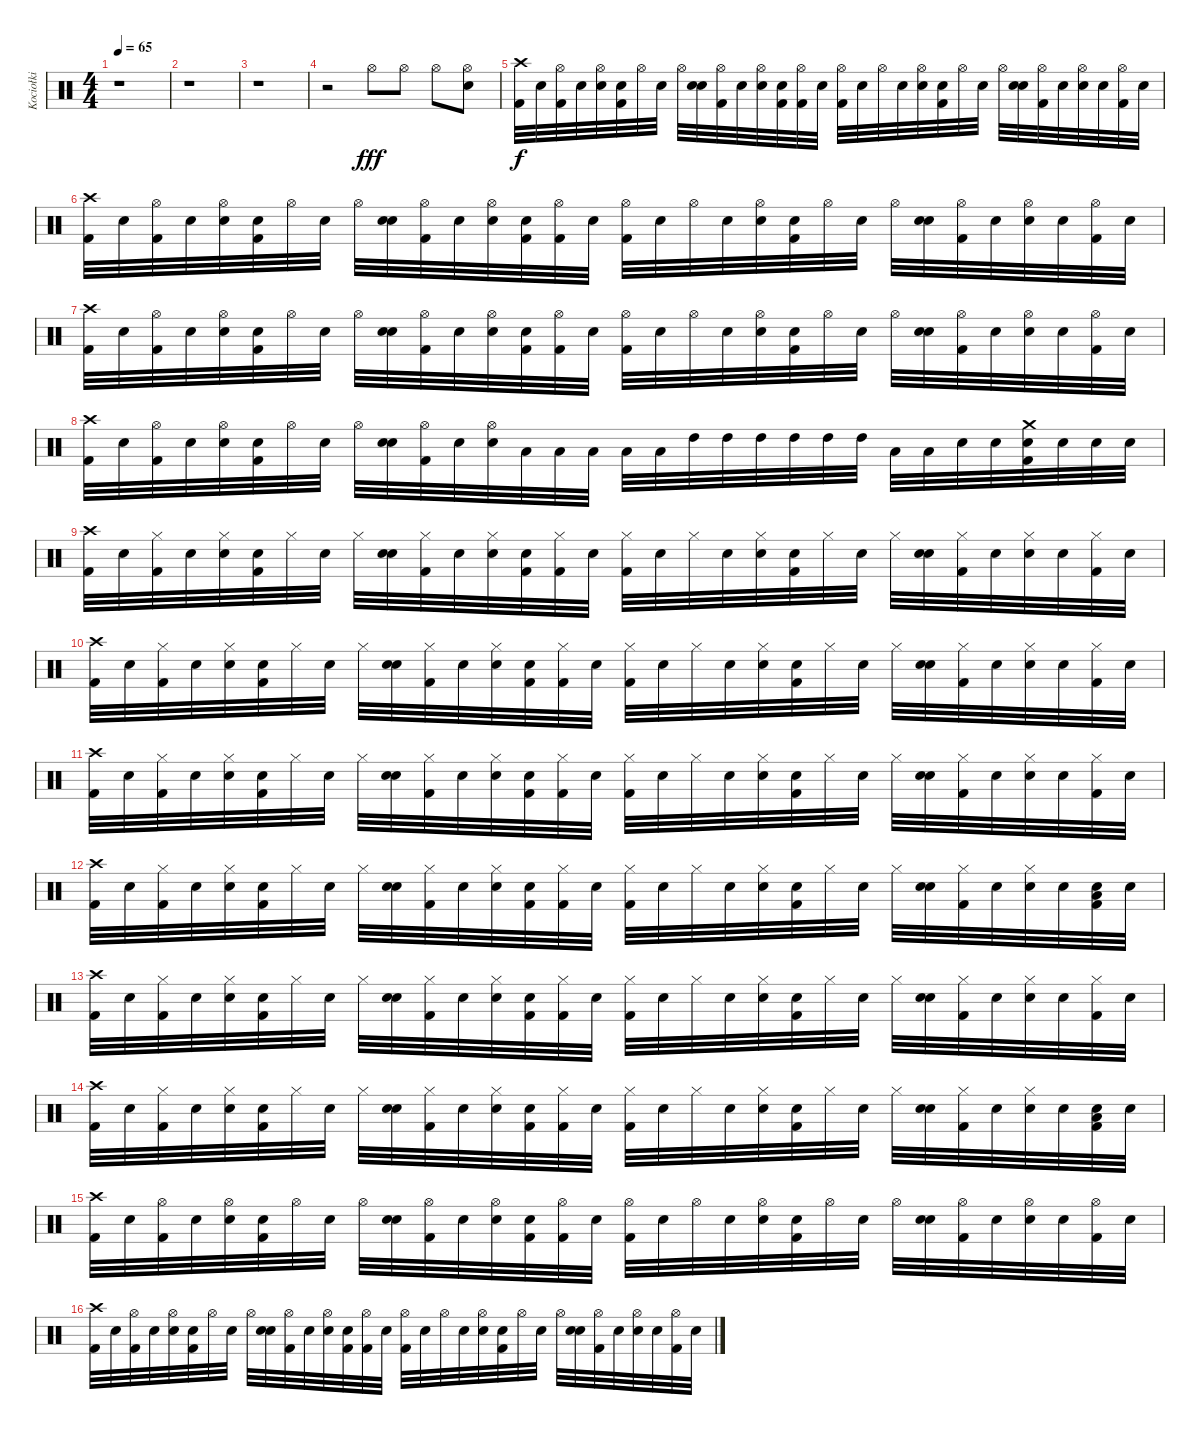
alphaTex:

\track ("Kociołki" "Kociołki") {instrument percussion}
\staff {score}
\articulation defaults
\ts (4 4)
\tempo 65
\clef neutral
\ks c
r.1{dy fff} |
r.1 |
r.1 |
r.2 "Hi-Hat (open)".8 "Hi-Hat (open)".8 "Hi-Hat (open)".8 ("Hi-Hat (open)" "Snare (hit) 2").8 |
("Crash high (hit)" "Kick (hit) 2").32{dy f} "Snare (hit)".32 ("Hi-Hat (open)" "Kick (hit) 2").32 "Snare (hit)".32 ("Hi-Hat (open)" "Snare (hit) 2").32 ("Snare (hit)" "Kick (hit) 2").32 "Hi-Hat (open)".32 "Snare (hit)".32 "Hi-Hat (open)".32 ("Snare (hit)" "Snare (hit) 2").32 ("Hi-Hat (open)" "Kick (hit) 2").32 "Snare (hit)".32 ("Hi-Hat (open)" "Snare (hit) 2").32 ("Snare (hit)" "Kick (hit) 2").32 ("Hi-Hat (open)" "Kick (hit) 2").32 "Snare (hit)".32 ("Hi-Hat (open)" "Kick (hit) 2").32 "Snare (hit)".32 "Hi-Hat (open)".32 "Snare (hit)".32 ("Hi-Hat (open)" "Snare (hit) 2").32 ("Snare (hit)" "Kick (hit) 2").32 "Hi-Hat (open)".32 "Snare (hit)".32 "Hi-Hat (open)".32 ("Snare (hit)" "Snare (hit) 2").32 ("Hi-Hat (open)" "Kick (hit) 2").32 "Snare (hit)".32 ("Hi-Hat (open)" "Snare (hit) 2").32 "Snare (hit)".32 ("Hi-Hat (open)" "Kick (hit) 2").32 "Snare (hit)".32 |
("Crash high (hit)" "Kick (hit) 2").32 "Snare (hit)".32 ("Hi-Hat (open)" "Kick (hit) 2").32 "Snare (hit)".32 ("Hi-Hat (open)" "Snare (hit) 2").32 ("Snare (hit)" "Kick (hit) 2").32 "Hi-Hat (open)".32 "Snare (hit)".32 "Hi-Hat (open)".32 ("Snare (hit)" "Snare (hit) 2").32 ("Hi-Hat (open)" "Kick (hit) 2").32 "Snare (hit)".32 ("Hi-Hat (open)" "Snare (hit) 2").32 ("Snare (hit)" "Kick (hit) 2").32 ("Hi-Hat (open)" "Kick (hit) 2").32 "Snare (hit)".32 ("Hi-Hat (open)" "Kick (hit) 2").32 "Snare (hit)".32 "Hi-Hat (open)".32 "Snare (hit)".32 ("Hi-Hat (open)" "Snare (hit) 2").32 ("Snare (hit)" "Kick (hit) 2").32 "Hi-Hat (open)".32 "Snare (hit)".32 "Hi-Hat (open)".32 ("Snare (hit)" "Snare (hit) 2").32 ("Hi-Hat (open)" "Kick (hit) 2").32 "Snare (hit)".32 ("Hi-Hat (open)" "Snare (hit) 2").32 "Snare (hit)".32 ("Hi-Hat (open)" "Kick (hit) 2").32 "Snare (hit)".32 |
("Crash high (hit)" "Kick (hit) 2").32 "Snare (hit)".32 ("Hi-Hat (open)" "Kick (hit) 2").32 "Snare (hit)".32 ("Hi-Hat (open)" "Snare (hit) 2").32 ("Snare (hit)" "Kick (hit) 2").32 "Hi-Hat (open)".32 "Snare (hit)".32 "Hi-Hat (open)".32 ("Snare (hit)" "Snare (hit) 2").32 ("Hi-Hat (open)" "Kick (hit) 2").32 "Snare (hit)".32 ("Hi-Hat (open)" "Snare (hit) 2").32 ("Snare (hit)" "Kick (hit) 2").32 ("Hi-Hat (open)" "Kick (hit) 2").32 "Snare (hit)".32 ("Hi-Hat (open)" "Kick (hit) 2").32 "Snare (hit)".32 "Hi-Hat (open)".32 "Snare (hit)".32 ("Hi-Hat (open)" "Snare (hit) 2").32 ("Snare (hit)" "Kick (hit) 2").32 "Hi-Hat (open)".32 "Snare (hit)".32 "Hi-Hat (open)".32 ("Snare (hit)" "Snare (hit) 2").32 ("Hi-Hat (open)" "Kick (hit) 2").32 "Snare (hit)".32 ("Hi-Hat (open)" "Snare (hit) 2").32 "Snare (hit)".32 ("Hi-Hat (open)" "Kick (hit) 2").32 "Snare (hit)".32 |
("Crash high (hit)" "Kick (hit) 2").32 "Snare (hit)".32 ("Hi-Hat (open)" "Kick (hit) 2").32 "Snare (hit)".32 ("Hi-Hat (open)" "Snare (hit) 2").32 ("Snare (hit)" "Kick (hit) 2").32 "Hi-Hat (open)".32 "Snare (hit)".32 "Hi-Hat (open)".32 ("Snare (hit)" "Snare (hit) 2").32 ("Hi-Hat (open)" "Kick (hit) 2").32 "Snare (hit)".32 ("Hi-Hat (open)" "Snare (hit) 2").32 "Low Floor Tom (hit)".32 "Low Floor Tom (hit)".32 "Low Floor Tom (hit)".32 "Low Floor Tom (hit)".32 "Low Floor Tom (hit)".32 "High Tom (hit)".32 "High Tom (hit)".32 "High Tom (hit)".32 "High Tom (hit)".32 "High Tom (hit)".32 "High Tom (hit)".32 "Low Tom (hit)".32 "Low Tom (hit)".32 "Snare (hit)".32 "Snare (hit)".32 ("Crash medium (hit)" "Snare (hit)" "Kick (hit) 2").32 "Snare (hit)".32 "Snare (hit)".32 "Snare (hit)".32 |
("Crash high (hit)" "Kick (hit) 2").32 "Snare (hit)".32 ("Hi-Hat (closed)" "Kick (hit) 2").32 "Snare (hit)".32 ("Hi-Hat (closed)" "Snare (hit) 2").32 ("Snare (hit)" "Kick (hit) 2").32 "Hi-Hat (closed)".32 "Snare (hit)".32 "Hi-Hat (closed)".32 ("Snare (hit)" "Snare (hit) 2").32 ("Hi-Hat (closed)" "Kick (hit) 2").32 "Snare (hit)".32 ("Hi-Hat (closed)" "Snare (hit) 2").32 ("Snare (hit)" "Kick (hit) 2").32 ("Hi-Hat (closed)" "Kick (hit) 2").32 "Snare (hit)".32 ("Hi-Hat (closed)" "Kick (hit) 2").32 "Snare (hit)".32 "Hi-Hat (closed)".32 "Snare (hit)".32 ("Hi-Hat (closed)" "Snare (hit) 2").32 ("Snare (hit)" "Kick (hit) 2").32 "Hi-Hat (closed)".32 "Snare (hit)".32 "Hi-Hat (closed)".32 ("Snare (hit)" "Snare (hit) 2").32 ("Hi-Hat (closed)" "Kick (hit) 2").32 "Snare (hit)".32 ("Hi-Hat (closed)" "Snare (hit) 2").32 "Snare (hit)".32 ("Hi-Hat (closed)" "Kick (hit) 2").32 "Snare (hit)".32 |
("Crash high (hit)" "Kick (hit) 2").32 "Snare (hit)".32 ("Hi-Hat (closed)" "Kick (hit) 2").32 "Snare (hit)".32 ("Hi-Hat (closed)" "Snare (hit) 2").32 ("Snare (hit)" "Kick (hit) 2").32 "Hi-Hat (closed)".32 "Snare (hit)".32 "Hi-Hat (closed)".32 ("Snare (hit)" "Snare (hit) 2").32 ("Hi-Hat (closed)" "Kick (hit) 2").32 "Snare (hit)".32 ("Hi-Hat (closed)" "Snare (hit) 2").32 ("Snare (hit)" "Kick (hit) 2").32 ("Hi-Hat (closed)" "Kick (hit) 2").32 "Snare (hit)".32 ("Hi-Hat (closed)" "Kick (hit) 2").32 "Snare (hit)".32 "Hi-Hat (closed)".32 "Snare (hit)".32 ("Hi-Hat (closed)" "Snare (hit) 2").32 ("Snare (hit)" "Kick (hit) 2").32 "Hi-Hat (closed)".32 "Snare (hit)".32 "Hi-Hat (closed)".32 ("Snare (hit)" "Snare (hit) 2").32 ("Hi-Hat (closed)" "Kick (hit) 2").32 "Snare (hit)".32 ("Hi-Hat (closed)" "Snare (hit) 2").32 "Snare (hit)".32 ("Hi-Hat (closed)" "Kick (hit) 2").32 "Snare (hit)".32 |
("Crash high (hit)" "Kick (hit) 2").32 "Snare (hit)".32 ("Hi-Hat (closed)" "Kick (hit) 2").32 "Snare (hit)".32 ("Hi-Hat (closed)" "Snare (hit) 2").32 ("Snare (hit)" "Kick (hit) 2").32 "Hi-Hat (closed)".32 "Snare (hit)".32 "Hi-Hat (closed)".32 ("Snare (hit)" "Snare (hit) 2").32 ("Hi-Hat (closed)" "Kick (hit) 2").32 "Snare (hit)".32 ("Hi-Hat (closed)" "Snare (hit) 2").32 ("Snare (hit)" "Kick (hit) 2").32 ("Hi-Hat (closed)" "Kick (hit) 2").32 "Snare (hit)".32 ("Hi-Hat (closed)" "Kick (hit) 2").32 "Snare (hit)".32 "Hi-Hat (closed)".32 "Snare (hit)".32 ("Hi-Hat (closed)" "Snare (hit) 2").32 ("Snare (hit)" "Kick (hit) 2").32 "Hi-Hat (closed)".32 "Snare (hit)".32 "Hi-Hat (closed)".32 ("Snare (hit)" "Snare (hit) 2").32 ("Hi-Hat (closed)" "Kick (hit) 2").32 "Snare (hit)".32 ("Hi-Hat (closed)" "Snare (hit) 2").32 "Snare (hit)".32 ("Hi-Hat (closed)" "Kick (hit) 2").32 "Snare (hit)".32 |
("Crash high (hit)" "Kick (hit) 2").32 "Snare (hit)".32 ("Hi-Hat (closed)" "Kick (hit) 2").32 "Snare (hit)".32 ("Hi-Hat (closed)" "Snare (hit) 2").32 ("Snare (hit)" "Kick (hit) 2").32 "Hi-Hat (closed)".32 "Snare (hit)".32 "Hi-Hat (closed)".32 ("Snare (hit)" "Snare (hit) 2").32 ("Hi-Hat (closed)" "Kick (hit) 2").32 "Snare (hit)".32 ("Hi-Hat (closed)" "Snare (hit) 2").32 ("Snare (hit)" "Kick (hit) 2").32 ("Hi-Hat (closed)" "Kick (hit) 2").32 "Snare (hit)".32 ("Hi-Hat (closed)" "Kick (hit) 2").32 "Snare (hit)".32 "Hi-Hat (closed)".32 "Snare (hit)".32 ("Hi-Hat (closed)" "Snare (hit) 2").32 ("Snare (hit)" "Kick (hit) 2").32 "Hi-Hat (closed)".32 "Snare (hit)".32 "Hi-Hat (closed)".32 ("Snare (hit)" "Snare (hit) 2").32 ("Hi-Hat (closed)" "Kick (hit) 2").32 "Snare (hit)".32 ("Hi-Hat (closed)" "Snare (hit) 2").32 "Snare (hit)".32 ("Snare (hit) 2" "Low Tom (hit)" "Kick (hit) 2").32 "Snare (hit)".32 |
("Crash high (hit)" "Kick (hit) 2").32 "Snare (hit)".32 ("Hi-Hat (closed)" "Kick (hit) 2").32 "Snare (hit)".32 ("Hi-Hat (closed)" "Snare (hit) 2").32 ("Snare (hit)" "Kick (hit) 2").32 "Hi-Hat (closed)".32 "Snare (hit)".32 "Hi-Hat (closed)".32 ("Snare (hit)" "Snare (hit) 2").32 ("Hi-Hat (closed)" "Kick (hit) 2").32 "Snare (hit)".32 ("Hi-Hat (closed)" "Snare (hit) 2").32 ("Snare (hit)" "Kick (hit) 2").32 ("Hi-Hat (closed)" "Kick (hit) 2").32 "Snare (hit)".32 ("Hi-Hat (closed)" "Kick (hit) 2").32 "Snare (hit)".32 "Hi-Hat (closed)".32 "Snare (hit)".32 ("Hi-Hat (closed)" "Snare (hit) 2").32 ("Snare (hit)" "Kick (hit) 2").32 "Hi-Hat (closed)".32 "Snare (hit)".32 "Hi-Hat (closed)".32 ("Snare (hit)" "Snare (hit) 2").32 ("Hi-Hat (closed)" "Kick (hit) 2").32 "Snare (hit)".32 ("Hi-Hat (closed)" "Snare (hit) 2").32 "Snare (hit)".32 ("Hi-Hat (closed)" "Kick (hit) 2").32 "Snare (hit)".32 |
("Crash high (hit)" "Kick (hit) 2").32 "Snare (hit)".32 ("Hi-Hat (closed)" "Kick (hit) 2").32 "Snare (hit)".32 ("Hi-Hat (closed)" "Snare (hit) 2").32 ("Snare (hit)" "Kick (hit) 2").32 "Hi-Hat (closed)".32 "Snare (hit)".32 "Hi-Hat (closed)".32 ("Snare (hit)" "Snare (hit) 2").32 ("Hi-Hat (closed)" "Kick (hit) 2").32 "Snare (hit)".32 ("Hi-Hat (closed)" "Snare (hit) 2").32 ("Snare (hit)" "Kick (hit) 2").32 ("Hi-Hat (closed)" "Kick (hit) 2").32 "Snare (hit)".32 ("Hi-Hat (closed)" "Kick (hit) 2").32 "Snare (hit)".32 "Hi-Hat (closed)".32 "Snare (hit)".32 ("Hi-Hat (closed)" "Snare (hit) 2").32 ("Snare (hit)" "Kick (hit) 2").32 "Hi-Hat (closed)".32 "Snare (hit)".32 "Hi-Hat (closed)".32 ("Snare (hit)" "Snare (hit) 2").32 ("Hi-Hat (closed)" "Kick (hit) 2").32 "Snare (hit)".32 ("Hi-Hat (closed)" "Snare (hit) 2").32 "Snare (hit)".32 ("Snare (hit) 2" "Low Tom (hit)" "Kick (hit) 2").32 "Snare (hit)".32 |
("Crash high (hit)" "Kick (hit) 2").32 "Snare (hit)".32 ("Hi-Hat (open)" "Kick (hit) 2").32 "Snare (hit)".32 ("Hi-Hat (open)" "Snare (hit) 2").32 ("Snare (hit)" "Kick (hit) 2").32 "Hi-Hat (open)".32 "Snare (hit)".32 "Hi-Hat (open)".32 ("Snare (hit)" "Snare (hit) 2").32 ("Hi-Hat (open)" "Kick (hit) 2").32 "Snare (hit)".32 ("Hi-Hat (open)" "Snare (hit) 2").32 ("Snare (hit)" "Kick (hit) 2").32 ("Hi-Hat (open)" "Kick (hit) 2").32 "Snare (hit)".32 ("Hi-Hat (open)" "Kick (hit) 2").32 "Snare (hit)".32 "Hi-Hat (open)".32 "Snare (hit)".32 ("Hi-Hat (open)" "Snare (hit) 2").32 ("Snare (hit)" "Kick (hit) 2").32 "Hi-Hat (open)".32 "Snare (hit)".32 "Hi-Hat (open)".32 ("Snare (hit)" "Snare (hit) 2").32 ("Hi-Hat (open)" "Kick (hit) 2").32 "Snare (hit)".32 ("Hi-Hat (open)" "Snare (hit) 2").32 "Snare (hit)".32 ("Hi-Hat (open)" "Kick (hit) 2").32 "Snare (hit)".32 |
("Crash high (hit)" "Kick (hit) 2").32 "Snare (hit)".32 ("Hi-Hat (open)" "Kick (hit) 2").32 "Snare (hit)".32 ("Hi-Hat (open)" "Snare (hit) 2").32 ("Snare (hit)" "Kick (hit) 2").32 "Hi-Hat (open)".32 "Snare (hit)".32 "Hi-Hat (open)".32 ("Snare (hit)" "Snare (hit) 2").32 ("Hi-Hat (open)" "Kick (hit) 2").32 "Snare (hit)".32 ("Hi-Hat (open)" "Snare (hit) 2").32 ("Snare (hit)" "Kick (hit) 2").32 ("Hi-Hat (open)" "Kick (hit) 2").32 "Snare (hit)".32 ("Hi-Hat (open)" "Kick (hit) 2").32 "Snare (hit)".32 "Hi-Hat (open)".32 "Snare (hit)".32 ("Hi-Hat (open)" "Snare (hit) 2").32 ("Snare (hit)" "Kick (hit) 2").32 "Hi-Hat (open)".32 "Snare (hit)".32 "Hi-Hat (open)".32 ("Snare (hit)" "Snare (hit) 2").32 ("Hi-Hat (open)" "Kick (hit) 2").32 "Snare (hit)".32 ("Hi-Hat (open)" "Snare (hit) 2").32 "Snare (hit)".32 ("Hi-Hat (open)" "Kick (hit) 2").32 "Snare (hit)".32
